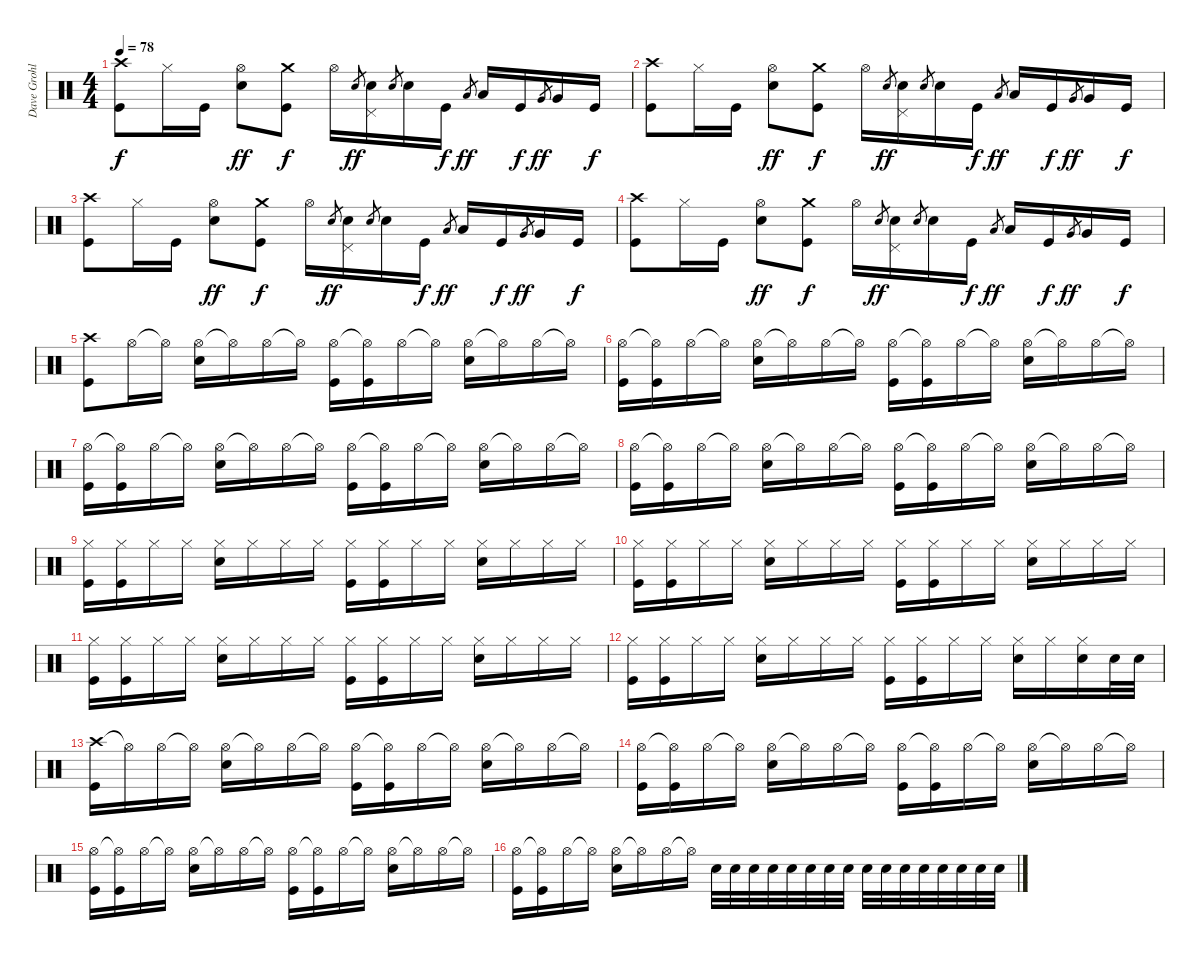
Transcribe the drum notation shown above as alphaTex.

\track ("Dave Grohl" "Dave Grohl") {instrument percussion}
\staff {score}
\articulation defaults
\ts (4 4)
\tempo 78
\clef neutral
\ks c
("Crash high (hit)" "Kick (hit)").8{dy f} "Hi-Hat (closed)".16 "Kick (hit)".16 ("Hi-Hat (open)" "Electric Snare (hit)").8{dy ff} ("Crash medium (hit)" "Kick (hit)").8{dy f} "Hi-Hat (open)".16 "Electric Snare (hit)".8{gr dy ff} ("Pedal Hi-Hat (hit)" "Electric Snare (hit)").16 "Electric Snare (hit)".8{gr} "Electric Snare (hit)".16 "Kick (hit)".16{dy f} "Low Tom (hit)".8{gr dy ff} "Low Tom (hit)".16 "Kick (hit)".16{dy f} "Very Low Tom (hit)".8{gr dy ff} "Very Low Tom (hit)".16 "Kick (hit)".16{dy f} |
("Crash high (hit)" "Kick (hit)").8 "Hi-Hat (closed)".16 "Kick (hit)".16 ("Hi-Hat (open)" "Electric Snare (hit)").8{dy ff} ("Crash medium (hit)" "Kick (hit)").8{dy f} "Hi-Hat (open)".16 "Electric Snare (hit)".8{gr dy ff} ("Pedal Hi-Hat (hit)" "Electric Snare (hit)").16 "Electric Snare (hit)".8{gr} "Electric Snare (hit)".16 "Kick (hit)".16{dy f} "Low Tom (hit)".8{gr dy ff} "Low Tom (hit)".16 "Kick (hit)".16{dy f} "Very Low Tom (hit)".8{gr dy ff} "Very Low Tom (hit)".16 "Kick (hit)".16{dy f} |
("Crash high (hit)" "Kick (hit)").8 "Hi-Hat (closed)".16 "Kick (hit)".16 ("Hi-Hat (open)" "Electric Snare (hit)").8{dy ff} ("Crash medium (hit)" "Kick (hit)").8{dy f} "Hi-Hat (open)".16 "Electric Snare (hit)".8{gr dy ff} ("Pedal Hi-Hat (hit)" "Electric Snare (hit)").16 "Electric Snare (hit)".8{gr} "Electric Snare (hit)".16 "Kick (hit)".16{dy f} "Low Tom (hit)".8{gr dy ff} "Low Tom (hit)".16 "Kick (hit)".16{dy f} "Very Low Tom (hit)".8{gr dy ff} "Very Low Tom (hit)".16 "Kick (hit)".16{dy f} |
("Crash high (hit)" "Kick (hit)").8 "Hi-Hat (closed)".16 "Kick (hit)".16 ("Hi-Hat (open)" "Electric Snare (hit)").8{dy ff} ("Crash medium (hit)" "Kick (hit)").8{dy f} "Hi-Hat (open)".16 "Electric Snare (hit)".8{gr dy ff} ("Pedal Hi-Hat (hit)" "Electric Snare (hit)").16 "Electric Snare (hit)".8{gr} "Electric Snare (hit)".16 "Kick (hit)".16{dy f} "Low Tom (hit)".8{gr dy ff} "Low Tom (hit)".16 "Kick (hit)".16{dy f} "Very Low Tom (hit)".8{gr dy ff} "Very Low Tom (hit)".16 "Kick (hit)".16{dy f} |
("Crash high (hit)" "Kick (hit)").8 "Hi-Hat (open)".16 "Hi-Hat (open)"{t}.16 ("Hi-Hat (open)" "Electric Snare (hit)").16 "Hi-Hat (open)"{t}.16 "Hi-Hat (open)".16 "Hi-Hat (open)"{t}.16 ("Hi-Hat (open)" "Kick (hit)").16 ("Hi-Hat (open)"{t} "Kick (hit)").16 "Hi-Hat (open)".16 "Hi-Hat (open)"{t}.16 ("Hi-Hat (open)" "Electric Snare (hit)").16 "Hi-Hat (open)"{t}.16 "Hi-Hat (open)".16 "Hi-Hat (open)"{t}.16 |
("Hi-Hat (open)" "Kick (hit)").16 ("Hi-Hat (open)"{t} "Kick (hit)").16 "Hi-Hat (open)".16 "Hi-Hat (open)"{t}.16 ("Hi-Hat (open)" "Electric Snare (hit)").16 "Hi-Hat (open)"{t}.16 "Hi-Hat (open)".16 "Hi-Hat (open)"{t}.16 ("Hi-Hat (open)" "Kick (hit)").16 ("Hi-Hat (open)"{t} "Kick (hit)").16 "Hi-Hat (open)".16 "Hi-Hat (open)"{t}.16 ("Hi-Hat (open)" "Electric Snare (hit)").16 "Hi-Hat (open)"{t}.16 "Hi-Hat (open)".16 "Hi-Hat (open)"{t}.16 |
("Hi-Hat (open)" "Kick (hit)").16 ("Hi-Hat (open)"{t} "Kick (hit)").16 "Hi-Hat (open)".16 "Hi-Hat (open)"{t}.16 ("Hi-Hat (open)" "Electric Snare (hit)").16 "Hi-Hat (open)"{t}.16 "Hi-Hat (open)".16 "Hi-Hat (open)"{t}.16 ("Hi-Hat (open)" "Kick (hit)").16 ("Hi-Hat (open)"{t} "Kick (hit)").16 "Hi-Hat (open)".16 "Hi-Hat (open)"{t}.16 ("Hi-Hat (open)" "Electric Snare (hit)").16 "Hi-Hat (open)"{t}.16 "Hi-Hat (open)".16 "Hi-Hat (open)"{t}.16 |
("Hi-Hat (open)" "Kick (hit)").16 ("Hi-Hat (open)"{t} "Kick (hit)").16 "Hi-Hat (open)".16 "Hi-Hat (open)"{t}.16 ("Hi-Hat (open)" "Electric Snare (hit)").16 "Hi-Hat (open)"{t}.16 "Hi-Hat (open)".16 "Hi-Hat (open)"{t}.16 ("Hi-Hat (open)" "Kick (hit)").16 ("Hi-Hat (open)"{t} "Kick (hit)").16 "Hi-Hat (open)".16 "Hi-Hat (open)"{t}.16 ("Hi-Hat (open)" "Electric Snare (hit)").16 "Hi-Hat (open)"{t}.16 "Hi-Hat (open)".16 "Hi-Hat (open)"{t}.16 |
("Hi-Hat (closed)" "Kick (hit)").16 ("Hi-Hat (closed)" "Kick (hit)").16 "Hi-Hat (closed)".16 "Hi-Hat (closed)".16 ("Hi-Hat (closed)" "Electric Snare (hit)").16 "Hi-Hat (closed)".16 "Hi-Hat (closed)".16 "Hi-Hat (closed)".16 ("Hi-Hat (closed)" "Kick (hit)").16 ("Hi-Hat (closed)" "Kick (hit)").16 "Hi-Hat (closed)".16 "Hi-Hat (closed)".16 ("Hi-Hat (closed)" "Electric Snare (hit)").16 "Hi-Hat (closed)".16 "Hi-Hat (closed)".16 "Hi-Hat (closed)".16 |
("Hi-Hat (closed)" "Kick (hit)").16 ("Hi-Hat (closed)" "Kick (hit)").16 "Hi-Hat (closed)".16 "Hi-Hat (closed)".16 ("Hi-Hat (closed)" "Electric Snare (hit)").16 "Hi-Hat (closed)".16 "Hi-Hat (closed)".16 "Hi-Hat (closed)".16 ("Hi-Hat (closed)" "Kick (hit)").16 ("Hi-Hat (closed)" "Kick (hit)").16 "Hi-Hat (closed)".16 "Hi-Hat (closed)".16 ("Hi-Hat (closed)" "Electric Snare (hit)").16 "Hi-Hat (closed)".16 "Hi-Hat (closed)".16 "Hi-Hat (closed)".16 |
("Hi-Hat (closed)" "Kick (hit)").16 ("Hi-Hat (closed)" "Kick (hit)").16 "Hi-Hat (closed)".16 "Hi-Hat (closed)".16 ("Hi-Hat (closed)" "Electric Snare (hit)").16 "Hi-Hat (closed)".16 "Hi-Hat (closed)".16 "Hi-Hat (closed)".16 ("Hi-Hat (closed)" "Kick (hit)").16 ("Hi-Hat (closed)" "Kick (hit)").16 "Hi-Hat (closed)".16 "Hi-Hat (closed)".16 ("Hi-Hat (closed)" "Electric Snare (hit)").16 "Hi-Hat (closed)".16 "Hi-Hat (closed)".16 "Hi-Hat (closed)".16 |
("Hi-Hat (closed)" "Kick (hit)").16 ("Hi-Hat (closed)" "Kick (hit)").16 "Hi-Hat (closed)".16 "Hi-Hat (closed)".16 ("Hi-Hat (closed)" "Electric Snare (hit)").16 "Hi-Hat (closed)".16 "Hi-Hat (closed)".16 "Hi-Hat (closed)".16 ("Hi-Hat (closed)" "Kick (hit)").16 ("Hi-Hat (closed)" "Kick (hit)").16 "Hi-Hat (closed)".16 "Hi-Hat (closed)".16 ("Hi-Hat (closed)" "Electric Snare (hit)").16 "Hi-Hat (closed)".16 ("Hi-Hat (closed)" "Electric Snare (hit)").16 "Electric Snare (hit)".32 "Electric Snare (hit)".32 |
("Crash high (hit)" "Kick (hit)").16 "Hi-Hat (open)"{t}.16 "Hi-Hat (open)".16 "Hi-Hat (open)"{t}.16 ("Hi-Hat (open)" "Electric Snare (hit)").16 "Hi-Hat (open)"{t}.16 "Hi-Hat (open)".16 "Hi-Hat (open)"{t}.16 ("Hi-Hat (open)" "Kick (hit)").16 ("Hi-Hat (open)"{t} "Kick (hit)").16 "Hi-Hat (open)".16 "Hi-Hat (open)"{t}.16 ("Hi-Hat (open)" "Electric Snare (hit)").16 "Hi-Hat (open)"{t}.16 "Hi-Hat (open)".16 "Hi-Hat (open)"{t}.16 |
("Hi-Hat (open)" "Kick (hit)").16 ("Hi-Hat (open)"{t} "Kick (hit)").16 "Hi-Hat (open)".16 "Hi-Hat (open)"{t}.16 ("Hi-Hat (open)" "Electric Snare (hit)").16 "Hi-Hat (open)"{t}.16 "Hi-Hat (open)".16 "Hi-Hat (open)"{t}.16 ("Hi-Hat (open)" "Kick (hit)").16 ("Hi-Hat (open)"{t} "Kick (hit)").16 "Hi-Hat (open)".16 "Hi-Hat (open)"{t}.16 ("Hi-Hat (open)" "Electric Snare (hit)").16 "Hi-Hat (open)"{t}.16 "Hi-Hat (open)".16 "Hi-Hat (open)"{t}.16 |
("Hi-Hat (open)" "Kick (hit)").16 ("Hi-Hat (open)"{t} "Kick (hit)").16 "Hi-Hat (open)".16 "Hi-Hat (open)"{t}.16 ("Hi-Hat (open)" "Electric Snare (hit)").16 "Hi-Hat (open)"{t}.16 "Hi-Hat (open)".16 "Hi-Hat (open)"{t}.16 ("Hi-Hat (open)" "Kick (hit)").16 ("Hi-Hat (open)"{t} "Kick (hit)").16 "Hi-Hat (open)".16 "Hi-Hat (open)"{t}.16 ("Hi-Hat (open)" "Electric Snare (hit)").16 "Hi-Hat (open)"{t}.16 "Hi-Hat (open)".16 "Hi-Hat (open)"{t}.16 |
("Hi-Hat (open)" "Kick (hit)").16 ("Hi-Hat (open)"{t} "Kick (hit)").16 "Hi-Hat (open)".16 "Hi-Hat (open)"{t}.16 ("Hi-Hat (open)" "Electric Snare (hit)").16 "Hi-Hat (open)"{t}.16 "Hi-Hat (open)".16 "Hi-Hat (open)"{t}.16 "Electric Snare (hit)".32 "Electric Snare (hit)".32 "Electric Snare (hit)".32 "Electric Snare (hit)".32 "Electric Snare (hit)".32 "Electric Snare (hit)".32 "Electric Snare (hit)".32 "Electric Snare (hit)".32 "Electric Snare (hit)".32 "Electric Snare (hit)".32 "Electric Snare (hit)".32 "Electric Snare (hit)".32 "Electric Snare (hit)".32 "Electric Snare (hit)".32 "Electric Snare (hit)".32 "Electric Snare (hit)".32
